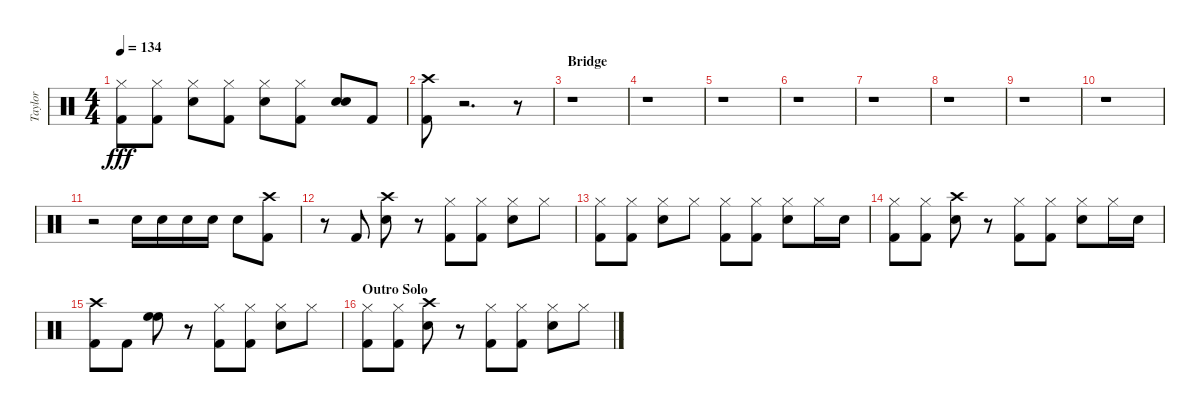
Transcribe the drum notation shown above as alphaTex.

\track ("Taylor" "Taylor") {instrument percussion}
\staff {score}
\articulation defaults
\ts (4 4)
\tempo 134
\clef neutral
\ks c
("Kick (hit) 2" "Hi-Hat (closed)").8{dy fff} ("Kick (hit) 2" "Hi-Hat (closed)").8 ("Snare (hit) 2" "Hi-Hat (closed)").8 ("Kick (hit) 2" "Hi-Hat (closed)").8 ("Snare (hit) 2" "Hi-Hat (closed)").8 ("Kick (hit) 2" "Hi-Hat (closed)").8 ("Snare (hit) 2" "Snare (hit) 2").8 "Kick (hit) 2".8 |
("Kick (hit) 2" "Crash high (hit)").8 r.2{d} r.8 |
\section ("" "Bridge")
r.1 |
r.1 |
r.1 |
r.1 |
r.1 |
r.1 |
r.1 |
r.1 |
r.2 "Snare (hit) 2".16 "Snare (hit) 2".16 "Snare (hit) 2".16 "Snare (hit) 2".16 "Snare (hit) 2".8 ("Kick (hit) 2" "Crash high (hit)").8 |
r.8 "Kick (hit) 2".8 ("Crash high (hit)" "Snare (hit) 2").8 r.8 ("Hi-Hat (closed)" "Kick (hit) 2").8 ("Hi-Hat (closed)" "Kick (hit) 2").8 ("Hi-Hat (closed)" "Snare (hit) 2").8 "Hi-Hat (closed)".8 |
("Kick (hit) 2" "Hi-Hat (closed)").8 ("Kick (hit) 2" "Hi-Hat (closed)").8 ("Snare (hit) 2" "Hi-Hat (closed)").8 "Hi-Hat (closed)".8 ("Kick (hit) 2" "Hi-Hat (closed)").8 ("Kick (hit) 2" "Hi-Hat (closed)").8 ("Snare (hit) 2" "Hi-Hat (closed)").8 "Hi-Hat (closed)".16 "Snare (hit) 2".16 |
("Kick (hit) 2" "Hi-Hat (closed)").8 ("Kick (hit) 2" "Hi-Hat (closed)").8 ("Snare (hit) 2" "Crash high (hit)").8 r.8 ("Kick (hit) 2" "Hi-Hat (closed)").8 ("Kick (hit) 2" "Hi-Hat (closed)").8 ("Snare (hit) 2" "Hi-Hat (closed)").8 "Hi-Hat (closed)".16 "Snare (hit) 2".16 |
("Kick (hit) 2" "Crash high (hit)").8 "Kick (hit) 2".8 ("High Floor Tom (hit)" "High Floor Tom (hit)").8 r.8 ("Kick (hit) 2" "Hi-Hat (closed)").8 ("Kick (hit) 2" "Hi-Hat (closed)").8 ("Snare (hit) 2" "Hi-Hat (closed)").8 "Hi-Hat (closed)".8 |
\section ("" "Outro Solo")
("Kick (hit) 2" "Hi-Hat (closed)").8 ("Kick (hit) 2" "Hi-Hat (closed)").8 ("Snare (hit) 2" "Crash high (hit)").8 r.8 ("Kick (hit) 2" "Hi-Hat (closed)").8 ("Kick (hit) 2" "Hi-Hat (closed)").8 ("Snare (hit) 2" "Hi-Hat (closed)").8 "Hi-Hat (closed)".8
